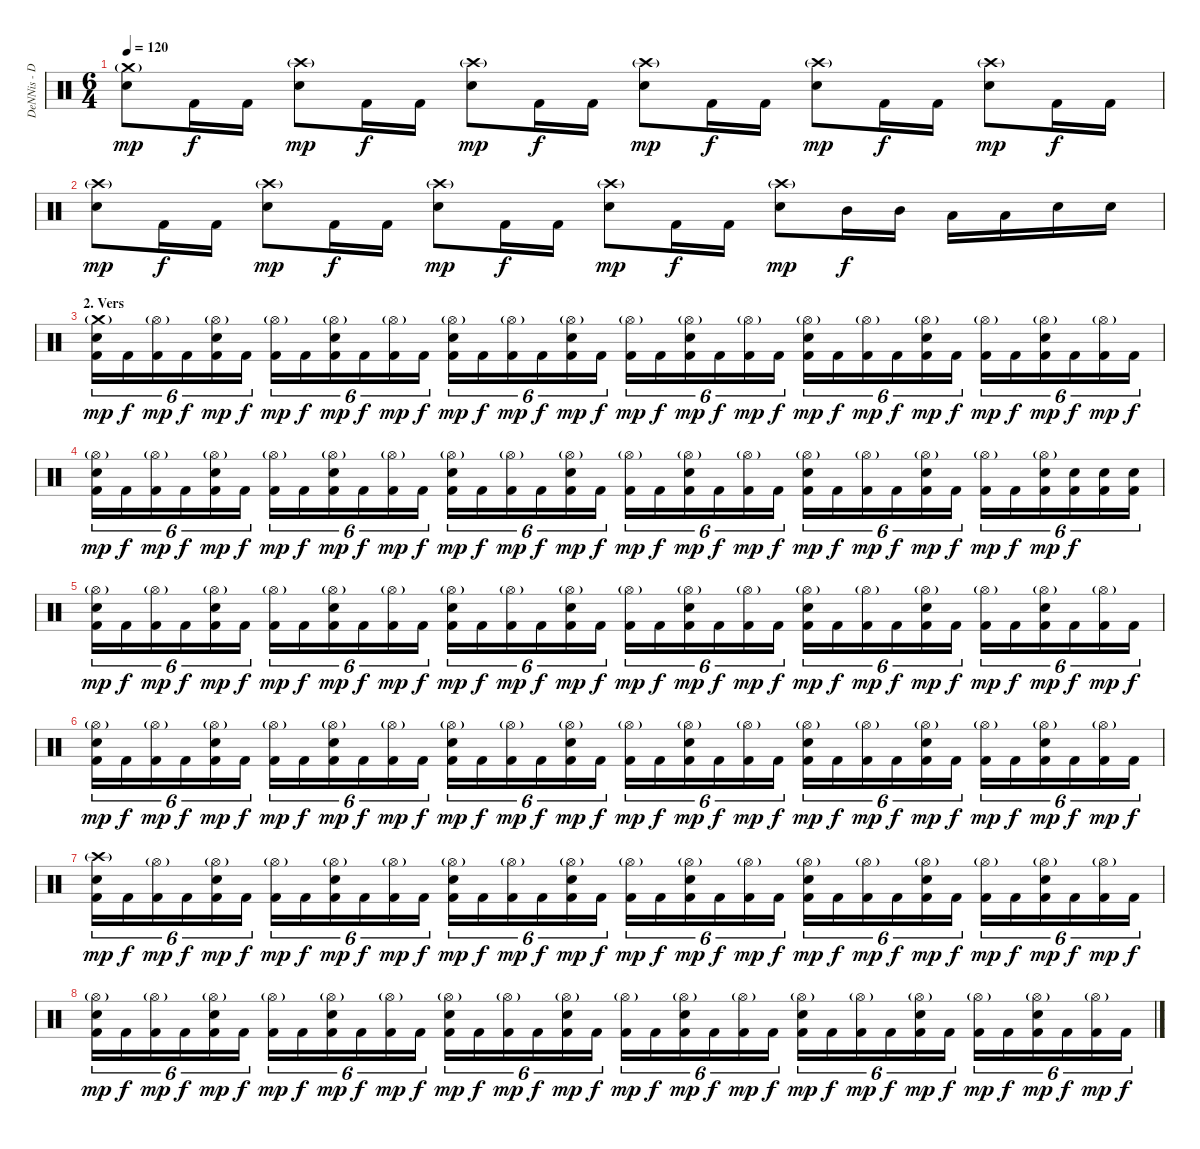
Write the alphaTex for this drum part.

\track ("DeNNis - Drums" "DeNNis - D") {instrument percussion}
\staff {score}
\articulation defaults
\ts (6 4)
\tempo 120
\clef neutral
\ks c
("Crash medium (hit)"{g} "Electric Snare (hit)").8{dy mp} "Kick (hit) 2".16{dy f} "Kick (hit) 2".16 ("Crash high (hit)"{g} "Electric Snare (hit)").8{dy mp} "Kick (hit) 2".16{dy f} "Kick (hit) 2".16 ("Crash high (hit)"{g} "Electric Snare (hit)").8{dy mp} "Kick (hit) 2".16{dy f} "Kick (hit) 2".16 ("Crash high (hit)"{g} "Electric Snare (hit)").8{dy mp} "Kick (hit) 2".16{dy f} "Kick (hit) 2".16 ("Crash high (hit)"{g} "Electric Snare (hit)").8{dy mp} "Kick (hit) 2".16{dy f} "Kick (hit) 2".16 ("Crash high (hit)"{g} "Electric Snare (hit)").8{dy mp} "Kick (hit) 2".16{dy f} "Kick (hit) 2".16 |
("Crash high (hit)"{g} "Electric Snare (hit)").8{dy mp} "Kick (hit) 2".16{dy f} "Kick (hit) 2".16 ("Crash high (hit)"{g} "Electric Snare (hit)").8{dy mp} "Kick (hit) 2".16{dy f} "Kick (hit) 2".16 ("Crash high (hit)"{g} "Electric Snare (hit)").8{dy mp} "Kick (hit) 2".16{dy f} "Kick (hit) 2".16 ("Crash high (hit)"{g} "Electric Snare (hit)").8{dy mp} "Kick (hit) 2".16{dy f} "Kick (hit) 2".16 ("Crash high (hit)"{g} "Electric Snare (hit)").8{dy mp} "Mid Tom (hit)".16{dy f} "Mid Tom (hit)".16 "Low Tom (hit)".16 "Low Floor Tom (hit)".16 "Electric Snare (hit)".16 "Electric Snare (hit)".16 |
\section ("" "2. Vers")
("Crash medium (hit)"{g} "Electric Snare (hit)" "Kick (hit) 2").16{tu (6 4) dy mp} "Kick (hit) 2".16{tu (6 4) dy f} ("Hi-Hat (open)"{g} "Kick (hit) 2").16{tu (6 4) dy mp} "Kick (hit) 2".16{tu (6 4) dy f} ("Hi-Hat (open)"{g} "Electric Snare (hit)" "Kick (hit) 2").16{tu (6 4) dy mp} "Kick (hit) 2".16{tu (6 4) dy f} ("Hi-Hat (open)"{g} "Kick (hit) 2").16{tu (6 4) dy mp} "Kick (hit) 2".16{tu (6 4) dy f} ("Hi-Hat (open)"{g} "Electric Snare (hit)" "Kick (hit) 2").16{tu (6 4) dy mp} "Kick (hit) 2".16{tu (6 4) dy f} ("Hi-Hat (open)"{g} "Kick (hit) 2").16{tu (6 4) dy mp} "Kick (hit) 2".16{tu (6 4) dy f} ("Hi-Hat (open)"{g} "Electric Snare (hit)" "Kick (hit) 2").16{tu (6 4) dy mp} "Kick (hit) 2".16{tu (6 4) dy f} ("Hi-Hat (open)"{g} "Kick (hit) 2").16{tu (6 4) dy mp} "Kick (hit) 2".16{tu (6 4) dy f} ("Hi-Hat (open)"{g} "Electric Snare (hit)" "Kick (hit) 2").16{tu (6 4) dy mp} "Kick (hit) 2".16{tu (6 4) dy f} ("Hi-Hat (open)"{g} "Kick (hit) 2").16{tu (6 4) dy mp} "Kick (hit) 2".16{tu (6 4) dy f} ("Hi-Hat (open)"{g} "Electric Snare (hit)" "Kick (hit) 2").16{tu (6 4) dy mp} "Kick (hit) 2".16{tu (6 4) dy f} ("Hi-Hat (open)"{g} "Kick (hit) 2").16{tu (6 4) dy mp} "Kick (hit) 2".16{tu (6 4) dy f} ("Hi-Hat (open)"{g} "Electric Snare (hit)" "Kick (hit) 2").16{tu (6 4) dy mp} "Kick (hit) 2".16{tu (6 4) dy f} ("Hi-Hat (open)"{g} "Kick (hit) 2").16{tu (6 4) dy mp} "Kick (hit) 2".16{tu (6 4) dy f} ("Hi-Hat (open)"{g} "Electric Snare (hit)" "Kick (hit) 2").16{tu (6 4) dy mp} "Kick (hit) 2".16{tu (6 4) dy f} ("Hi-Hat (open)"{g} "Kick (hit) 2").16{tu (6 4) dy mp} "Kick (hit) 2".16{tu (6 4) dy f} ("Hi-Hat (open)"{g} "Electric Snare (hit)" "Kick (hit) 2").16{tu (6 4) dy mp} "Kick (hit) 2".16{tu (6 4) dy f} ("Hi-Hat (open)"{g} "Kick (hit) 2").16{tu (6 4) dy mp} "Kick (hit) 2".16{tu (6 4) dy f} |
("Hi-Hat (open)"{g} "Electric Snare (hit)" "Kick (hit) 2").16{tu (6 4) dy mp} "Kick (hit) 2".16{tu (6 4) dy f} ("Hi-Hat (open)"{g} "Kick (hit) 2").16{tu (6 4) dy mp} "Kick (hit) 2".16{tu (6 4) dy f} ("Hi-Hat (open)"{g} "Electric Snare (hit)" "Kick (hit) 2").16{tu (6 4) dy mp} "Kick (hit) 2".16{tu (6 4) dy f} ("Hi-Hat (open)"{g} "Kick (hit) 2").16{tu (6 4) dy mp} "Kick (hit) 2".16{tu (6 4) dy f} ("Hi-Hat (open)"{g} "Electric Snare (hit)" "Kick (hit) 2").16{tu (6 4) dy mp} "Kick (hit) 2".16{tu (6 4) dy f} ("Hi-Hat (open)"{g} "Kick (hit) 2").16{tu (6 4) dy mp} "Kick (hit) 2".16{tu (6 4) dy f} ("Hi-Hat (open)"{g} "Electric Snare (hit)" "Kick (hit) 2").16{tu (6 4) dy mp} "Kick (hit) 2".16{tu (6 4) dy f} ("Hi-Hat (open)"{g} "Kick (hit) 2").16{tu (6 4) dy mp} "Kick (hit) 2".16{tu (6 4) dy f} ("Hi-Hat (open)"{g} "Electric Snare (hit)" "Kick (hit) 2").16{tu (6 4) dy mp} "Kick (hit) 2".16{tu (6 4) dy f} ("Hi-Hat (open)"{g} "Kick (hit) 2").16{tu (6 4) dy mp} "Kick (hit) 2".16{tu (6 4) dy f} ("Hi-Hat (open)"{g} "Electric Snare (hit)" "Kick (hit) 2").16{tu (6 4) dy mp} "Kick (hit) 2".16{tu (6 4) dy f} ("Hi-Hat (open)"{g} "Kick (hit) 2").16{tu (6 4) dy mp} "Kick (hit) 2".16{tu (6 4) dy f} ("Hi-Hat (open)"{g} "Electric Snare (hit)" "Kick (hit) 2").16{tu (6 4) dy mp} "Kick (hit) 2".16{tu (6 4) dy f} ("Hi-Hat (open)"{g} "Kick (hit) 2").16{tu (6 4) dy mp} "Kick (hit) 2".16{tu (6 4) dy f} ("Hi-Hat (open)"{g} "Electric Snare (hit)" "Kick (hit) 2").16{tu (6 4) dy mp} "Kick (hit) 2".16{tu (6 4) dy f} ("Hi-Hat (open)"{g} "Kick (hit) 2").16{tu (6 4) dy mp} "Kick (hit) 2".16{tu (6 4) dy f} ("Hi-Hat (open)"{g} "Electric Snare (hit)" "Kick (hit) 2").16{tu (6 4) dy mp} ("Electric Snare (hit)" "Kick (hit) 2").16{tu (6 4) dy f} ("Electric Snare (hit)" "Kick (hit) 2").16{tu (6 4)} ("Electric Snare (hit)" "Kick (hit) 2").16{tu (6 4)} |
("Hi-Hat (open)"{g} "Electric Snare (hit)" "Kick (hit) 2").16{tu (6 4) dy mp} "Kick (hit) 2".16{tu (6 4) dy f} ("Hi-Hat (open)"{g} "Kick (hit) 2").16{tu (6 4) dy mp} "Kick (hit) 2".16{tu (6 4) dy f} ("Hi-Hat (open)"{g} "Electric Snare (hit)" "Kick (hit) 2").16{tu (6 4) dy mp} "Kick (hit) 2".16{tu (6 4) dy f} ("Hi-Hat (open)"{g} "Kick (hit) 2").16{tu (6 4) dy mp} "Kick (hit) 2".16{tu (6 4) dy f} ("Hi-Hat (open)"{g} "Electric Snare (hit)" "Kick (hit) 2").16{tu (6 4) dy mp} "Kick (hit) 2".16{tu (6 4) dy f} ("Hi-Hat (open)"{g} "Kick (hit) 2").16{tu (6 4) dy mp} "Kick (hit) 2".16{tu (6 4) dy f} ("Hi-Hat (open)"{g} "Electric Snare (hit)" "Kick (hit) 2").16{tu (6 4) dy mp} "Kick (hit) 2".16{tu (6 4) dy f} ("Hi-Hat (open)"{g} "Kick (hit) 2").16{tu (6 4) dy mp} "Kick (hit) 2".16{tu (6 4) dy f} ("Hi-Hat (open)"{g} "Electric Snare (hit)" "Kick (hit) 2").16{tu (6 4) dy mp} "Kick (hit) 2".16{tu (6 4) dy f} ("Hi-Hat (open)"{g} "Kick (hit) 2").16{tu (6 4) dy mp} "Kick (hit) 2".16{tu (6 4) dy f} ("Hi-Hat (open)"{g} "Electric Snare (hit)" "Kick (hit) 2").16{tu (6 4) dy mp} "Kick (hit) 2".16{tu (6 4) dy f} ("Hi-Hat (open)"{g} "Kick (hit) 2").16{tu (6 4) dy mp} "Kick (hit) 2".16{tu (6 4) dy f} ("Hi-Hat (open)"{g} "Electric Snare (hit)" "Kick (hit) 2").16{tu (6 4) dy mp} "Kick (hit) 2".16{tu (6 4) dy f} ("Hi-Hat (open)"{g} "Kick (hit) 2").16{tu (6 4) dy mp} "Kick (hit) 2".16{tu (6 4) dy f} ("Hi-Hat (open)"{g} "Electric Snare (hit)" "Kick (hit) 2").16{tu (6 4) dy mp} "Kick (hit) 2".16{tu (6 4) dy f} ("Hi-Hat (open)"{g} "Kick (hit) 2").16{tu (6 4) dy mp} "Kick (hit) 2".16{tu (6 4) dy f} ("Hi-Hat (open)"{g} "Electric Snare (hit)" "Kick (hit) 2").16{tu (6 4) dy mp} "Kick (hit) 2".16{tu (6 4) dy f} ("Hi-Hat (open)"{g} "Kick (hit) 2").16{tu (6 4) dy mp} "Kick (hit) 2".16{tu (6 4) dy f} |
("Hi-Hat (open)"{g} "Electric Snare (hit)" "Kick (hit) 2").16{tu (6 4) dy mp} "Kick (hit) 2".16{tu (6 4) dy f} ("Hi-Hat (open)"{g} "Kick (hit) 2").16{tu (6 4) dy mp} "Kick (hit) 2".16{tu (6 4) dy f} ("Hi-Hat (open)"{g} "Electric Snare (hit)" "Kick (hit) 2").16{tu (6 4) dy mp} "Kick (hit) 2".16{tu (6 4) dy f} ("Hi-Hat (open)"{g} "Kick (hit) 2").16{tu (6 4) dy mp} "Kick (hit) 2".16{tu (6 4) dy f} ("Hi-Hat (open)"{g} "Electric Snare (hit)" "Kick (hit) 2").16{tu (6 4) dy mp} "Kick (hit) 2".16{tu (6 4) dy f} ("Hi-Hat (open)"{g} "Kick (hit) 2").16{tu (6 4) dy mp} "Kick (hit) 2".16{tu (6 4) dy f} ("Hi-Hat (open)"{g} "Electric Snare (hit)" "Kick (hit) 2").16{tu (6 4) dy mp} "Kick (hit) 2".16{tu (6 4) dy f} ("Hi-Hat (open)"{g} "Kick (hit) 2").16{tu (6 4) dy mp} "Kick (hit) 2".16{tu (6 4) dy f} ("Hi-Hat (open)"{g} "Electric Snare (hit)" "Kick (hit) 2").16{tu (6 4) dy mp} "Kick (hit) 2".16{tu (6 4) dy f} ("Hi-Hat (open)"{g} "Kick (hit) 2").16{tu (6 4) dy mp} "Kick (hit) 2".16{tu (6 4) dy f} ("Hi-Hat (open)"{g} "Electric Snare (hit)" "Kick (hit) 2").16{tu (6 4) dy mp} "Kick (hit) 2".16{tu (6 4) dy f} ("Hi-Hat (open)"{g} "Kick (hit) 2").16{tu (6 4) dy mp} "Kick (hit) 2".16{tu (6 4) dy f} ("Hi-Hat (open)"{g} "Electric Snare (hit)" "Kick (hit) 2").16{tu (6 4) dy mp} "Kick (hit) 2".16{tu (6 4) dy f} ("Hi-Hat (open)"{g} "Kick (hit) 2").16{tu (6 4) dy mp} "Kick (hit) 2".16{tu (6 4) dy f} ("Hi-Hat (open)"{g} "Electric Snare (hit)" "Kick (hit) 2").16{tu (6 4) dy mp} "Kick (hit) 2".16{tu (6 4) dy f} ("Hi-Hat (open)"{g} "Kick (hit) 2").16{tu (6 4) dy mp} "Kick (hit) 2".16{tu (6 4) dy f} ("Hi-Hat (open)"{g} "Electric Snare (hit)" "Kick (hit) 2").16{tu (6 4) dy mp} "Kick (hit) 2".16{tu (6 4) dy f} ("Hi-Hat (open)"{g} "Kick (hit) 2").16{tu (6 4) dy mp} "Kick (hit) 2".16{tu (6 4) dy f} |
("Crash high (hit)"{g} "Electric Snare (hit)" "Kick (hit) 2").16{tu (6 4) dy mp} "Kick (hit) 2".16{tu (6 4) dy f} ("Hi-Hat (open)"{g} "Kick (hit) 2").16{tu (6 4) dy mp} "Kick (hit) 2".16{tu (6 4) dy f} ("Hi-Hat (open)"{g} "Electric Snare (hit)" "Kick (hit) 2").16{tu (6 4) dy mp} "Kick (hit) 2".16{tu (6 4) dy f} ("Hi-Hat (open)"{g} "Kick (hit) 2").16{tu (6 4) dy mp} "Kick (hit) 2".16{tu (6 4) dy f} ("Hi-Hat (open)"{g} "Electric Snare (hit)" "Kick (hit) 2").16{tu (6 4) dy mp} "Kick (hit) 2".16{tu (6 4) dy f} ("Hi-Hat (open)"{g} "Kick (hit) 2").16{tu (6 4) dy mp} "Kick (hit) 2".16{tu (6 4) dy f} ("Hi-Hat (open)"{g} "Electric Snare (hit)" "Kick (hit) 2").16{tu (6 4) dy mp} "Kick (hit) 2".16{tu (6 4) dy f} ("Hi-Hat (open)"{g} "Kick (hit) 2").16{tu (6 4) dy mp} "Kick (hit) 2".16{tu (6 4) dy f} ("Hi-Hat (open)"{g} "Electric Snare (hit)" "Kick (hit) 2").16{tu (6 4) dy mp} "Kick (hit) 2".16{tu (6 4) dy f} ("Hi-Hat (open)"{g} "Kick (hit) 2").16{tu (6 4) dy mp} "Kick (hit) 2".16{tu (6 4) dy f} ("Hi-Hat (open)"{g} "Electric Snare (hit)" "Kick (hit) 2").16{tu (6 4) dy mp} "Kick (hit) 2".16{tu (6 4) dy f} ("Hi-Hat (open)"{g} "Kick (hit) 2").16{tu (6 4) dy mp} "Kick (hit) 2".16{tu (6 4) dy f} ("Hi-Hat (open)"{g} "Electric Snare (hit)" "Kick (hit) 2").16{tu (6 4) dy mp} "Kick (hit) 2".16{tu (6 4) dy f} ("Hi-Hat (open)"{g} "Kick (hit) 2").16{tu (6 4) dy mp} "Kick (hit) 2".16{tu (6 4) dy f} ("Hi-Hat (open)"{g} "Electric Snare (hit)" "Kick (hit) 2").16{tu (6 4) dy mp} "Kick (hit) 2".16{tu (6 4) dy f} ("Hi-Hat (open)"{g} "Kick (hit) 2").16{tu (6 4) dy mp} "Kick (hit) 2".16{tu (6 4) dy f} ("Hi-Hat (open)"{g} "Electric Snare (hit)" "Kick (hit) 2").16{tu (6 4) dy mp} "Kick (hit) 2".16{tu (6 4) dy f} ("Hi-Hat (open)"{g} "Kick (hit) 2").16{tu (6 4) dy mp} "Kick (hit) 2".16{tu (6 4) dy f} |
("Hi-Hat (open)"{g} "Electric Snare (hit)" "Kick (hit) 2").16{tu (6 4) dy mp} "Kick (hit) 2".16{tu (6 4) dy f} ("Hi-Hat (open)"{g} "Kick (hit) 2").16{tu (6 4) dy mp} "Kick (hit) 2".16{tu (6 4) dy f} ("Hi-Hat (open)"{g} "Electric Snare (hit)" "Kick (hit) 2").16{tu (6 4) dy mp} "Kick (hit) 2".16{tu (6 4) dy f} ("Hi-Hat (open)"{g} "Kick (hit) 2").16{tu (6 4) dy mp} "Kick (hit) 2".16{tu (6 4) dy f} ("Hi-Hat (open)"{g} "Electric Snare (hit)" "Kick (hit) 2").16{tu (6 4) dy mp} "Kick (hit) 2".16{tu (6 4) dy f} ("Hi-Hat (open)"{g} "Kick (hit) 2").16{tu (6 4) dy mp} "Kick (hit) 2".16{tu (6 4) dy f} ("Hi-Hat (open)"{g} "Electric Snare (hit)" "Kick (hit) 2").16{tu (6 4) dy mp} "Kick (hit) 2".16{tu (6 4) dy f} ("Hi-Hat (open)"{g} "Kick (hit) 2").16{tu (6 4) dy mp} "Kick (hit) 2".16{tu (6 4) dy f} ("Hi-Hat (open)"{g} "Electric Snare (hit)" "Kick (hit) 2").16{tu (6 4) dy mp} "Kick (hit) 2".16{tu (6 4) dy f} ("Hi-Hat (open)"{g} "Kick (hit) 2").16{tu (6 4) dy mp} "Kick (hit) 2".16{tu (6 4) dy f} ("Hi-Hat (open)"{g} "Electric Snare (hit)" "Kick (hit) 2").16{tu (6 4) dy mp} "Kick (hit) 2".16{tu (6 4) dy f} ("Hi-Hat (open)"{g} "Kick (hit) 2").16{tu (6 4) dy mp} "Kick (hit) 2".16{tu (6 4) dy f} ("Hi-Hat (open)"{g} "Electric Snare (hit)" "Kick (hit) 2").16{tu (6 4) dy mp} "Kick (hit) 2".16{tu (6 4) dy f} ("Hi-Hat (open)"{g} "Kick (hit) 2").16{tu (6 4) dy mp} "Kick (hit) 2".16{tu (6 4) dy f} ("Hi-Hat (open)"{g} "Electric Snare (hit)" "Kick (hit) 2").16{tu (6 4) dy mp} "Kick (hit) 2".16{tu (6 4) dy f} ("Hi-Hat (open)"{g} "Kick (hit) 2").16{tu (6 4) dy mp} "Kick (hit) 2".16{tu (6 4) dy f} ("Hi-Hat (open)"{g} "Electric Snare (hit)" "Kick (hit) 2").16{tu (6 4) dy mp} "Kick (hit) 2".16{tu (6 4) dy f} ("Hi-Hat (open)"{g} "Kick (hit) 2").16{tu (6 4) dy mp} "Kick (hit) 2".16{tu (6 4) dy f}
